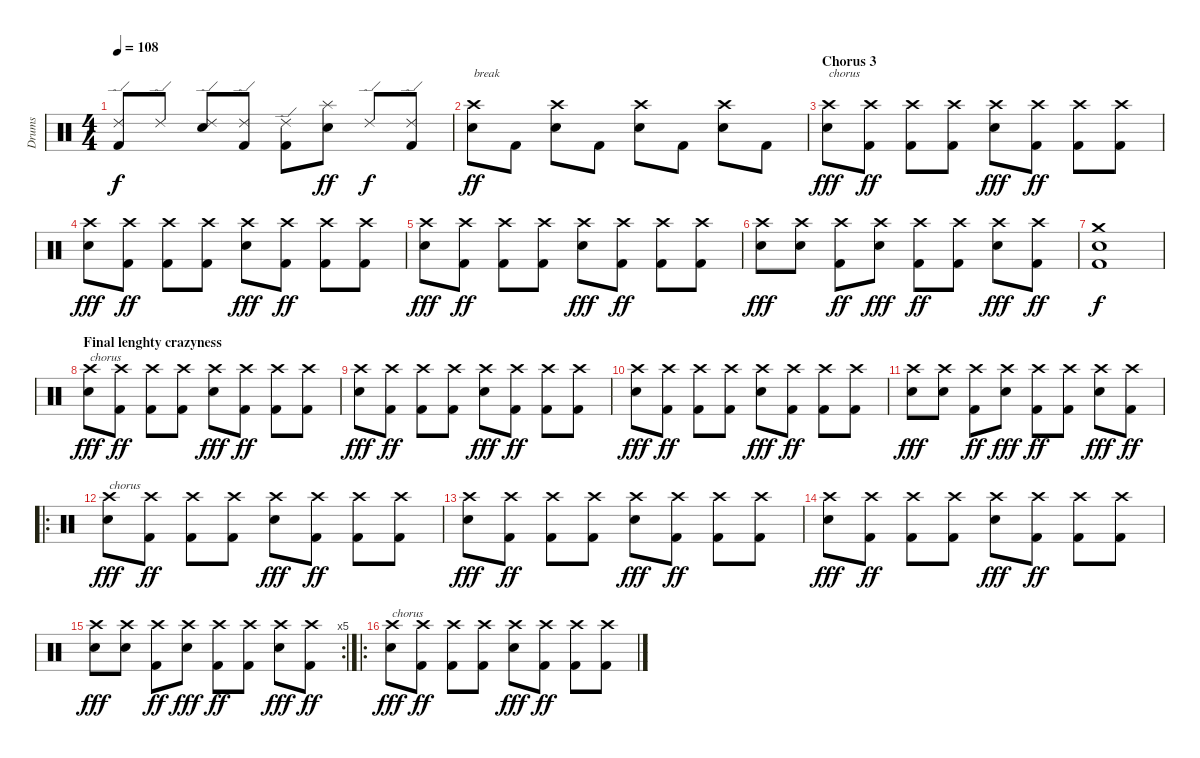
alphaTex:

\track ("Drums" "Drums") {instrument percussion}
\staff {score}
\articulation defaults
\ts (4 4)
\tempo 108
\clef neutral
\ks c
("Ride (edge) 2" "Kick (hit) 2").8{dy f} "Ride (edge) 2".8 ("Ride (edge) 2" "Electric Snare (hit)").8 ("Ride (edge) 2" "Kick (hit) 2").8 ("Ride (edge) 2" "Kick (hit) 2").8 ("Splash (hit)" "Electric Snare (hit)").8{dy ff} "Ride (edge) 2".8{dy f} ("Ride (edge) 2" "Kick (hit) 2").8 |
("Crash high (hit)" "Electric Snare (hit)").8{txt "break" dy ff} "Kick (hit) 2".8 ("Crash high (hit)" "Electric Snare (hit)").8 "Kick (hit) 2".8 ("Crash high (hit)" "Electric Snare (hit)").8 "Kick (hit) 2".8 ("Crash high (hit)" "Electric Snare (hit)").8 "Kick (hit) 2".8 |
\section ("" "Chorus 3")
("Crash high (hit)" "Electric Snare (hit)").8{txt "chorus" dy fff} ("Crash high (hit)" "Kick (hit) 2").8{dy ff} ("Crash high (hit)" "Kick (hit) 2").8 ("Crash high (hit)" "Kick (hit) 2").8 ("Crash high (hit)" "Electric Snare (hit)").8{dy fff} ("Crash high (hit)" "Kick (hit) 2").8{dy ff} ("Crash high (hit)" "Kick (hit) 2").8 ("Crash high (hit)" "Kick (hit) 2").8 |
("Crash high (hit)" "Electric Snare (hit)").8{dy fff} ("Crash high (hit)" "Kick (hit) 2").8{dy ff} ("Crash high (hit)" "Kick (hit) 2").8 ("Crash high (hit)" "Kick (hit) 2").8 ("Crash high (hit)" "Electric Snare (hit)").8{dy fff} ("Crash high (hit)" "Kick (hit) 2").8{dy ff} ("Crash high (hit)" "Kick (hit) 2").8 ("Crash high (hit)" "Kick (hit) 2").8 |
("Crash high (hit)" "Electric Snare (hit)").8{dy fff} ("Crash high (hit)" "Kick (hit) 2").8{dy ff} ("Crash high (hit)" "Kick (hit) 2").8 ("Crash high (hit)" "Kick (hit) 2").8 ("Crash high (hit)" "Electric Snare (hit)").8{dy fff} ("Crash high (hit)" "Kick (hit) 2").8{dy ff} ("Crash high (hit)" "Kick (hit) 2").8 ("Crash high (hit)" "Kick (hit) 2").8 |
("Crash high (hit)" "Electric Snare (hit)").8{dy fff} ("Crash high (hit)" "Electric Snare (hit)").8 ("Crash high (hit)" "Kick (hit) 2").8{dy ff} ("Crash high (hit)" "Electric Snare (hit)").8{dy fff} ("Crash high (hit)" "Kick (hit) 2").8{dy ff} ("Crash high (hit)" "Kick (hit) 2").8 ("Crash high (hit)" "Electric Snare (hit)").8{dy fff} ("Crash high (hit)" "Kick (hit) 2").8{dy ff} |
("Crash medium (hit)" "Electric Snare (hit)" "Kick (hit) 2").1{dy f} |
\section ("" "Final lenghty crazyness")
("Crash high (hit)" "Electric Snare (hit)").8{txt "chorus" dy fff} ("Crash high (hit)" "Kick (hit) 2").8{dy ff} ("Crash high (hit)" "Kick (hit) 2").8 ("Crash high (hit)" "Kick (hit) 2").8 ("Crash high (hit)" "Electric Snare (hit)").8{dy fff} ("Crash high (hit)" "Kick (hit) 2").8{dy ff} ("Crash high (hit)" "Kick (hit) 2").8 ("Crash high (hit)" "Kick (hit) 2").8 |
("Crash high (hit)" "Electric Snare (hit)").8{dy fff} ("Crash high (hit)" "Kick (hit) 2").8{dy ff} ("Crash high (hit)" "Kick (hit) 2").8 ("Crash high (hit)" "Kick (hit) 2").8 ("Crash high (hit)" "Electric Snare (hit)").8{dy fff} ("Crash high (hit)" "Kick (hit) 2").8{dy ff} ("Crash high (hit)" "Kick (hit) 2").8 ("Crash high (hit)" "Kick (hit) 2").8 |
("Crash high (hit)" "Electric Snare (hit)").8{dy fff} ("Crash high (hit)" "Kick (hit) 2").8{dy ff} ("Crash high (hit)" "Kick (hit) 2").8 ("Crash high (hit)" "Kick (hit) 2").8 ("Crash high (hit)" "Electric Snare (hit)").8{dy fff} ("Crash high (hit)" "Kick (hit) 2").8{dy ff} ("Crash high (hit)" "Kick (hit) 2").8 ("Crash high (hit)" "Kick (hit) 2").8 |
("Crash high (hit)" "Electric Snare (hit)").8{dy fff} ("Crash high (hit)" "Electric Snare (hit)").8 ("Crash high (hit)" "Kick (hit) 2").8{dy ff} ("Crash high (hit)" "Electric Snare (hit)").8{dy fff} ("Crash high (hit)" "Kick (hit) 2").8{dy ff} ("Crash high (hit)" "Kick (hit) 2").8 ("Crash high (hit)" "Electric Snare (hit)").8{dy fff} ("Crash high (hit)" "Kick (hit) 2").8{dy ff} |
\ro
("Crash high (hit)" "Electric Snare (hit)").8{txt "chorus" dy fff} ("Crash high (hit)" "Kick (hit) 2").8{dy ff} ("Crash high (hit)" "Kick (hit) 2").8 ("Crash high (hit)" "Kick (hit) 2").8 ("Crash high (hit)" "Electric Snare (hit)").8{dy fff} ("Crash high (hit)" "Kick (hit) 2").8{dy ff} ("Crash high (hit)" "Kick (hit) 2").8 ("Crash high (hit)" "Kick (hit) 2").8 |
("Crash high (hit)" "Electric Snare (hit)").8{dy fff} ("Crash high (hit)" "Kick (hit) 2").8{dy ff} ("Crash high (hit)" "Kick (hit) 2").8 ("Crash high (hit)" "Kick (hit) 2").8 ("Crash high (hit)" "Electric Snare (hit)").8{dy fff} ("Crash high (hit)" "Kick (hit) 2").8{dy ff} ("Crash high (hit)" "Kick (hit) 2").8 ("Crash high (hit)" "Kick (hit) 2").8 |
("Crash high (hit)" "Electric Snare (hit)").8{dy fff} ("Crash high (hit)" "Kick (hit) 2").8{dy ff} ("Crash high (hit)" "Kick (hit) 2").8 ("Crash high (hit)" "Kick (hit) 2").8 ("Crash high (hit)" "Electric Snare (hit)").8{dy fff} ("Crash high (hit)" "Kick (hit) 2").8{dy ff} ("Crash high (hit)" "Kick (hit) 2").8 ("Crash high (hit)" "Kick (hit) 2").8 |
\rc 5
("Crash high (hit)" "Electric Snare (hit)").8{dy fff} ("Crash high (hit)" "Electric Snare (hit)").8 ("Crash high (hit)" "Kick (hit) 2").8{dy ff} ("Crash high (hit)" "Electric Snare (hit)").8{dy fff} ("Crash high (hit)" "Kick (hit) 2").8{dy ff} ("Crash high (hit)" "Kick (hit) 2").8 ("Crash high (hit)" "Electric Snare (hit)").8{dy fff} ("Crash high (hit)" "Kick (hit) 2").8{dy ff} |
\ro
("Crash high (hit)" "Electric Snare (hit)").8{txt "chorus" dy fff} ("Crash high (hit)" "Kick (hit) 2").8{dy ff} ("Crash high (hit)" "Kick (hit) 2").8 ("Crash high (hit)" "Kick (hit) 2").8 ("Crash high (hit)" "Electric Snare (hit)").8{dy fff} ("Crash high (hit)" "Kick (hit) 2").8{dy ff} ("Crash high (hit)" "Kick (hit) 2").8 ("Crash high (hit)" "Kick (hit) 2").8
